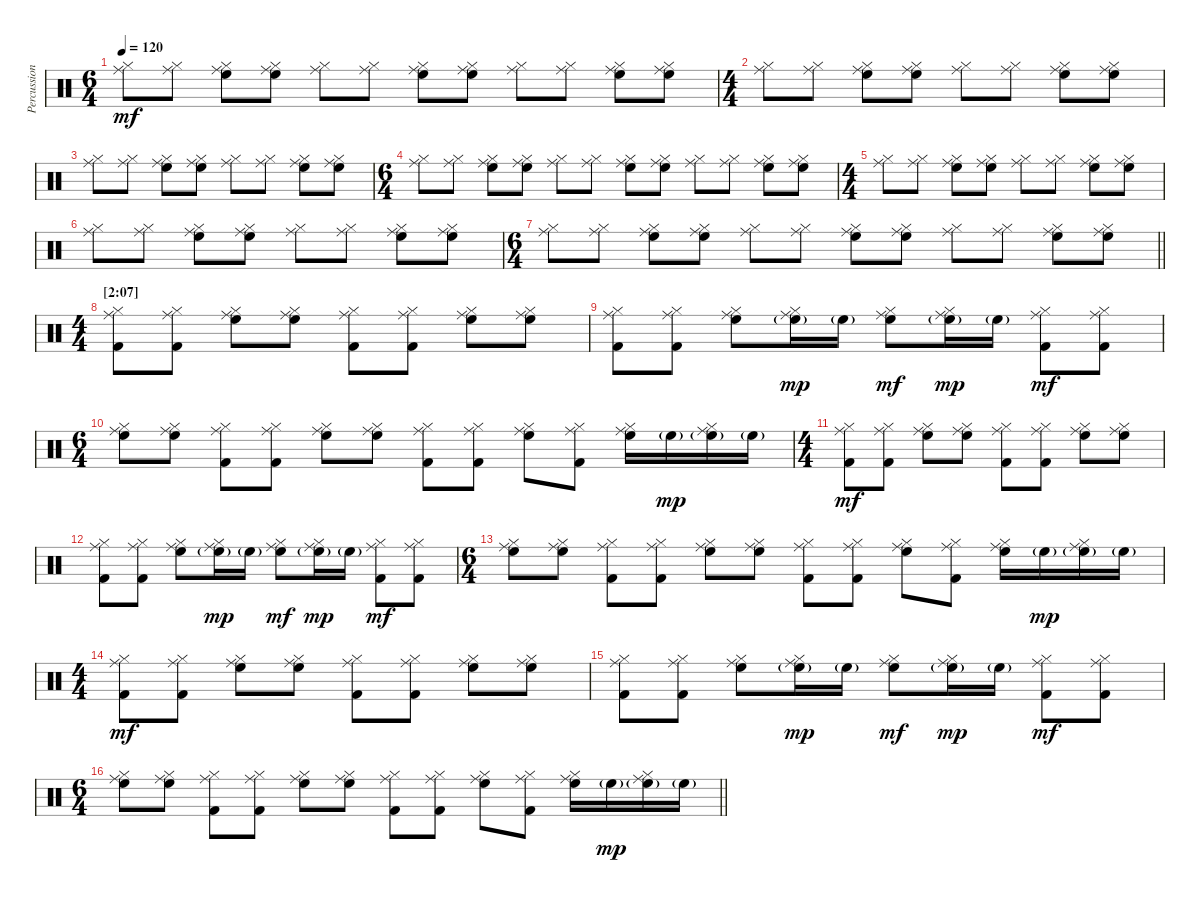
\track ("Percussion" "Percussion") {instrument percussion}
\staff {score}
\articulation defaults
\ts (6 4)
\tempo 120
\clef neutral
\ks c
("Ride (middle)" "Hi-Hat (closed)").8{dy mf} ("Ride (middle)" "Hi-Hat (closed)").8 ("Ride (middle)" "Hi-Hat (closed)" "High Floor Tom (hit)").8 ("Ride (middle)" "Hi-Hat (closed)" "High Floor Tom (hit)").8 ("Ride (middle)" "Hi-Hat (closed)").8 ("Ride (middle)" "Hi-Hat (closed)").8 ("Ride (middle)" "Hi-Hat (closed)" "High Floor Tom (hit)").8 ("Ride (middle)" "Hi-Hat (closed)" "High Floor Tom (hit)").8 ("Ride (middle)" "Hi-Hat (closed)").8 ("Ride (middle)" "Hi-Hat (closed)").8 ("Ride (middle)" "Hi-Hat (closed)" "High Floor Tom (hit)").8 ("Ride (middle)" "Hi-Hat (closed)" "High Floor Tom (hit)").8 |
\ts (4 4)
("Ride (middle)" "Hi-Hat (closed)").8 ("Ride (middle)" "Hi-Hat (closed)").8 ("Ride (middle)" "Hi-Hat (closed)" "High Floor Tom (hit)").8 ("Ride (middle)" "Hi-Hat (closed)" "High Floor Tom (hit)").8 ("Ride (middle)" "Hi-Hat (closed)").8 ("Ride (middle)" "Hi-Hat (closed)").8 ("Ride (middle)" "Hi-Hat (closed)" "High Floor Tom (hit)").8 ("Ride (middle)" "Hi-Hat (closed)" "High Floor Tom (hit)").8 |
("Ride (middle)" "Hi-Hat (closed)").8 ("Ride (middle)" "Hi-Hat (closed)").8 ("Ride (middle)" "Hi-Hat (closed)" "High Floor Tom (hit)").8 ("Ride (middle)" "Hi-Hat (closed)" "High Floor Tom (hit)").8 ("Ride (middle)" "Hi-Hat (closed)").8 ("Ride (middle)" "Hi-Hat (closed)").8 ("Ride (middle)" "Hi-Hat (closed)" "High Floor Tom (hit)").8 ("Ride (middle)" "Hi-Hat (closed)" "High Floor Tom (hit)").8 |
\ts (6 4)
("Ride (middle)" "Hi-Hat (closed)").8 ("Ride (middle)" "Hi-Hat (closed)").8 ("Ride (middle)" "Hi-Hat (closed)" "High Floor Tom (hit)").8 ("Ride (middle)" "Hi-Hat (closed)" "High Floor Tom (hit)").8 ("Ride (middle)" "Hi-Hat (closed)").8 ("Ride (middle)" "Hi-Hat (closed)").8 ("Ride (middle)" "Hi-Hat (closed)" "High Floor Tom (hit)").8 ("Ride (middle)" "Hi-Hat (closed)" "High Floor Tom (hit)").8 ("Ride (middle)" "Hi-Hat (closed)").8 ("Ride (middle)" "Hi-Hat (closed)").8 ("Ride (middle)" "Hi-Hat (closed)" "High Floor Tom (hit)").8 ("Ride (middle)" "Hi-Hat (closed)" "High Floor Tom (hit)").8 |
\ts (4 4)
("Ride (middle)" "Hi-Hat (closed)").8 ("Ride (middle)" "Hi-Hat (closed)").8 ("Ride (middle)" "Hi-Hat (closed)" "High Floor Tom (hit)").8 ("Ride (middle)" "Hi-Hat (closed)" "High Floor Tom (hit)").8 ("Ride (middle)" "Hi-Hat (closed)").8 ("Ride (middle)" "Hi-Hat (closed)").8 ("Ride (middle)" "Hi-Hat (closed)" "High Floor Tom (hit)").8 ("Ride (middle)" "Hi-Hat (closed)" "High Floor Tom (hit)").8 |
("Ride (middle)" "Hi-Hat (closed)").8 ("Ride (middle)" "Hi-Hat (closed)").8 ("Ride (middle)" "Hi-Hat (closed)" "High Floor Tom (hit)").8 ("Ride (middle)" "Hi-Hat (closed)" "High Floor Tom (hit)").8 ("Ride (middle)" "Hi-Hat (closed)").8 ("Ride (middle)" "Hi-Hat (closed)").8 ("Ride (middle)" "Hi-Hat (closed)" "High Floor Tom (hit)").8 ("Ride (middle)" "Hi-Hat (closed)" "High Floor Tom (hit)").8 |
\ts (6 4)
\barLineRight lightlight
("Ride (middle)" "Hi-Hat (closed)").8 ("Ride (middle)" "Hi-Hat (closed)").8 ("Ride (middle)" "Hi-Hat (closed)" "High Floor Tom (hit)").8 ("Ride (middle)" "Hi-Hat (closed)" "High Floor Tom (hit)").8 ("Ride (middle)" "Hi-Hat (closed)").8 ("Ride (middle)" "Hi-Hat (closed)").8 ("Ride (middle)" "Hi-Hat (closed)" "High Floor Tom (hit)").8 ("Ride (middle)" "Hi-Hat (closed)" "High Floor Tom (hit)").8 ("Ride (middle)" "Hi-Hat (closed)").8 ("Ride (middle)" "Hi-Hat (closed)").8 ("Ride (middle)" "Hi-Hat (closed)" "High Floor Tom (hit)").8 ("Ride (middle)" "Hi-Hat (closed)" "High Floor Tom (hit)").8 |
\ts (4 4)
\section ("" "[2:07]")
("Ride (middle)" "Hi-Hat (closed)" "Kick (hit) 2").8 ("Ride (middle)" "Hi-Hat (closed)" "Kick (hit) 2").8 ("Ride (middle)" "Hi-Hat (closed)" "High Floor Tom (hit)").8 ("Ride (middle)" "Hi-Hat (closed)" "High Floor Tom (hit)").8 ("Ride (middle)" "Hi-Hat (closed)" "Kick (hit) 2").8 ("Ride (middle)" "Hi-Hat (closed)" "Kick (hit) 2").8 ("Ride (middle)" "Hi-Hat (closed)" "High Floor Tom (hit)").8 ("Ride (middle)" "Hi-Hat (closed)" "High Floor Tom (hit)").8 |
("Ride (middle)" "Hi-Hat (closed)" "Kick (hit) 2").8 ("Ride (middle)" "Hi-Hat (closed)" "Kick (hit) 2").8 ("Ride (middle)" "Hi-Hat (closed)" "High Floor Tom (hit)").8 ("Ride (middle)" "Hi-Hat (closed)" "High Floor Tom (hit)"{g}).16{dy mp} "High Floor Tom (hit)"{g}.16 ("Ride (middle)" "Hi-Hat (closed)" "High Floor Tom (hit)").8{dy mf} ("Ride (middle)" "Hi-Hat (closed)" "High Floor Tom (hit)"{g}).16{dy mp} "High Floor Tom (hit)"{g}.16 ("Ride (middle)" "Hi-Hat (closed)" "Kick (hit) 2").8{dy mf} ("Ride (middle)" "Hi-Hat (closed)" "Kick (hit) 2").8 |
\ts (6 4)
("Ride (middle)" "Hi-Hat (closed)" "High Floor Tom (hit)").8 ("Ride (middle)" "Hi-Hat (closed)" "High Floor Tom (hit)").8 ("Ride (middle)" "Hi-Hat (closed)" "Kick (hit) 2").8 ("Ride (middle)" "Hi-Hat (closed)" "Kick (hit) 2").8 ("Ride (middle)" "Hi-Hat (closed)" "High Floor Tom (hit)").8 ("Ride (middle)" "Hi-Hat (closed)" "High Floor Tom (hit)").8 ("Ride (middle)" "Hi-Hat (closed)" "Kick (hit) 2").8 ("Ride (middle)" "Hi-Hat (closed)" "Kick (hit) 2").8 ("Ride (middle)" "Hi-Hat (closed)" "High Floor Tom (hit)").8 ("Ride (middle)" "Hi-Hat (closed)" "Kick (hit) 2").8 ("Ride (middle)" "Hi-Hat (closed)" "High Floor Tom (hit)").16 "High Floor Tom (hit)"{g}.16{dy mp} ("Ride (middle)" "Hi-Hat (closed)" "High Floor Tom (hit)"{g}).16 "High Floor Tom (hit)"{g}.16 |
\ts (4 4)
("Ride (middle)" "Hi-Hat (closed)" "Kick (hit) 2").8{dy mf} ("Ride (middle)" "Hi-Hat (closed)" "Kick (hit) 2").8 ("Ride (middle)" "Hi-Hat (closed)" "High Floor Tom (hit)").8 ("Ride (middle)" "Hi-Hat (closed)" "High Floor Tom (hit)").8 ("Ride (middle)" "Hi-Hat (closed)" "Kick (hit) 2").8 ("Ride (middle)" "Hi-Hat (closed)" "Kick (hit) 2").8 ("Ride (middle)" "Hi-Hat (closed)" "High Floor Tom (hit)").8 ("Ride (middle)" "Hi-Hat (closed)" "High Floor Tom (hit)").8 |
("Ride (middle)" "Hi-Hat (closed)" "Kick (hit) 2").8 ("Ride (middle)" "Hi-Hat (closed)" "Kick (hit) 2").8 ("Ride (middle)" "Hi-Hat (closed)" "High Floor Tom (hit)").8 ("Ride (middle)" "Hi-Hat (closed)" "High Floor Tom (hit)"{g}).16{dy mp} "High Floor Tom (hit)"{g}.16 ("Ride (middle)" "Hi-Hat (closed)" "High Floor Tom (hit)").8{dy mf} ("Ride (middle)" "Hi-Hat (closed)" "High Floor Tom (hit)"{g}).16{dy mp} "High Floor Tom (hit)"{g}.16 ("Ride (middle)" "Hi-Hat (closed)" "Kick (hit) 2").8{dy mf} ("Ride (middle)" "Hi-Hat (closed)" "Kick (hit) 2").8 |
\ts (6 4)
("Ride (middle)" "Hi-Hat (closed)" "High Floor Tom (hit)").8 ("Ride (middle)" "Hi-Hat (closed)" "High Floor Tom (hit)").8 ("Ride (middle)" "Hi-Hat (closed)" "Kick (hit) 2").8 ("Ride (middle)" "Hi-Hat (closed)" "Kick (hit) 2").8 ("Ride (middle)" "Hi-Hat (closed)" "High Floor Tom (hit)").8 ("Ride (middle)" "Hi-Hat (closed)" "High Floor Tom (hit)").8 ("Ride (middle)" "Hi-Hat (closed)" "Kick (hit) 2").8 ("Ride (middle)" "Hi-Hat (closed)" "Kick (hit) 2").8 ("Ride (middle)" "Hi-Hat (closed)" "High Floor Tom (hit)").8 ("Ride (middle)" "Hi-Hat (closed)" "Kick (hit) 2").8 ("Ride (middle)" "Hi-Hat (closed)" "High Floor Tom (hit)").16 "High Floor Tom (hit)"{g}.16{dy mp} ("Ride (middle)" "Hi-Hat (closed)" "High Floor Tom (hit)"{g}).16 "High Floor Tom (hit)"{g}.16 |
\ts (4 4)
("Ride (middle)" "Hi-Hat (closed)" "Kick (hit) 2").8{dy mf} ("Ride (middle)" "Hi-Hat (closed)" "Kick (hit) 2").8 ("Ride (middle)" "Hi-Hat (closed)" "High Floor Tom (hit)").8 ("Ride (middle)" "Hi-Hat (closed)" "High Floor Tom (hit)").8 ("Ride (middle)" "Hi-Hat (closed)" "Kick (hit) 2").8 ("Ride (middle)" "Hi-Hat (closed)" "Kick (hit) 2").8 ("Ride (middle)" "Hi-Hat (closed)" "High Floor Tom (hit)").8 ("Ride (middle)" "Hi-Hat (closed)" "High Floor Tom (hit)").8 |
("Ride (middle)" "Hi-Hat (closed)" "Kick (hit) 2").8 ("Ride (middle)" "Hi-Hat (closed)" "Kick (hit) 2").8 ("Ride (middle)" "Hi-Hat (closed)" "High Floor Tom (hit)").8 ("Ride (middle)" "Hi-Hat (closed)" "High Floor Tom (hit)"{g}).16{dy mp} "High Floor Tom (hit)"{g}.16 ("Ride (middle)" "Hi-Hat (closed)" "High Floor Tom (hit)").8{dy mf} ("Ride (middle)" "Hi-Hat (closed)" "High Floor Tom (hit)"{g}).16{dy mp} "High Floor Tom (hit)"{g}.16 ("Ride (middle)" "Hi-Hat (closed)" "Kick (hit) 2").8{dy mf} ("Ride (middle)" "Hi-Hat (closed)" "Kick (hit) 2").8 |
\ts (6 4)
\barLineRight lightlight
("Ride (middle)" "Hi-Hat (closed)" "High Floor Tom (hit)").8 ("Ride (middle)" "Hi-Hat (closed)" "High Floor Tom (hit)").8 ("Ride (middle)" "Hi-Hat (closed)" "Kick (hit) 2").8 ("Ride (middle)" "Hi-Hat (closed)" "Kick (hit) 2").8 ("Ride (middle)" "Hi-Hat (closed)" "High Floor Tom (hit)").8 ("Ride (middle)" "Hi-Hat (closed)" "High Floor Tom (hit)").8 ("Ride (middle)" "Hi-Hat (closed)" "Kick (hit) 2").8 ("Ride (middle)" "Hi-Hat (closed)" "Kick (hit) 2").8 ("Ride (middle)" "Hi-Hat (closed)" "High Floor Tom (hit)").8 ("Ride (middle)" "Hi-Hat (closed)" "Kick (hit) 2").8 ("Ride (middle)" "Hi-Hat (closed)" "High Floor Tom (hit)").16 "High Floor Tom (hit)"{g}.16{dy mp} ("Ride (middle)" "Hi-Hat (closed)" "High Floor Tom (hit)"{g}).16 "High Floor Tom (hit)"{g}.16
